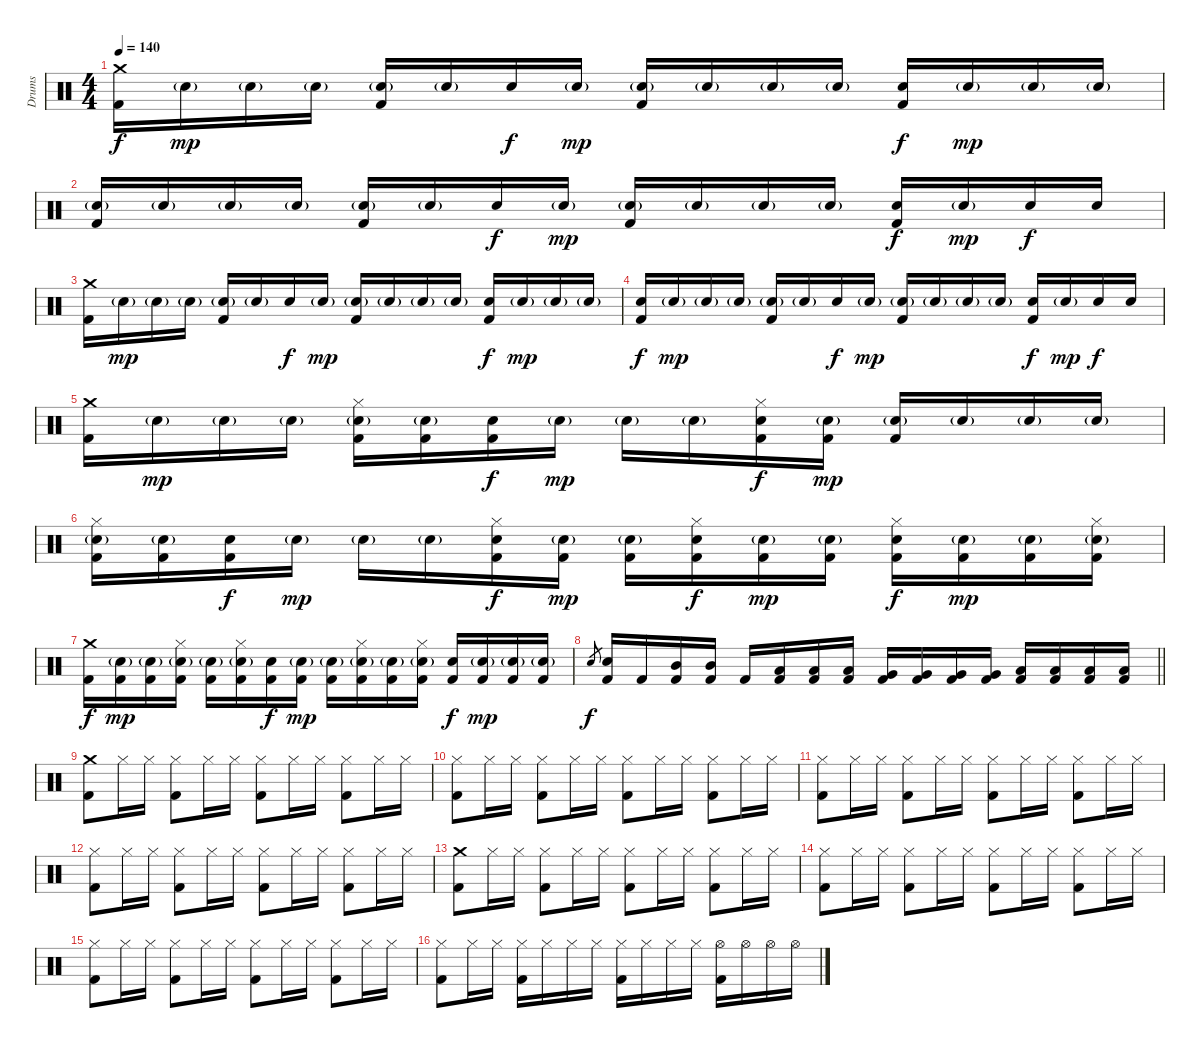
\track ("Drums" "Drums") {instrument percussion}
\staff {score}
\articulation defaults
\ts (4 4)
\tempo 140
\clef neutral
\ks c
("Crash medium (hit)" "Kick (hit) 2").16{dy f} "Electric Snare (hit)"{g}.16{dy mp} "Electric Snare (hit)"{g}.16 "Electric Snare (hit)"{g}.16 ("Electric Snare (hit)"{g} "Kick (hit) 2").16 "Electric Snare (hit)"{g}.16 "Electric Snare (hit)".16{dy f} "Electric Snare (hit)"{g}.16{dy mp} ("Electric Snare (hit)"{g} "Kick (hit) 2").16 "Electric Snare (hit)"{g}.16 "Electric Snare (hit)"{g}.16 "Electric Snare (hit)"{g}.16 ("Electric Snare (hit)" "Kick (hit) 2").16{dy f} "Electric Snare (hit)"{g}.16{dy mp} "Electric Snare (hit)"{g}.16 "Electric Snare (hit)"{g}.16 |
("Electric Snare (hit)"{g} "Kick (hit) 2").16 "Electric Snare (hit)"{g}.16 "Electric Snare (hit)"{g}.16 "Electric Snare (hit)"{g}.16 ("Electric Snare (hit)"{g} "Kick (hit) 2").16 "Electric Snare (hit)"{g}.16 "Electric Snare (hit)".16{dy f} "Electric Snare (hit)"{g}.16{dy mp} ("Electric Snare (hit)"{g} "Kick (hit) 2").16 "Electric Snare (hit)"{g}.16 "Electric Snare (hit)"{g}.16 "Electric Snare (hit)"{g}.16 ("Electric Snare (hit)" "Kick (hit) 2").16{dy f} "Electric Snare (hit)"{g}.16{dy mp} "Electric Snare (hit)".16{dy f} "Electric Snare (hit)".16 |
("Crash medium (hit)" "Kick (hit) 2").16 "Electric Snare (hit)"{g}.16{dy mp} "Electric Snare (hit)"{g}.16 "Electric Snare (hit)"{g}.16 ("Electric Snare (hit)"{g} "Kick (hit) 2").16 "Electric Snare (hit)"{g}.16 "Electric Snare (hit)".16{dy f} "Electric Snare (hit)"{g}.16{dy mp} ("Electric Snare (hit)"{g} "Kick (hit) 2").16 "Electric Snare (hit)"{g}.16 "Electric Snare (hit)"{g}.16 "Electric Snare (hit)"{g}.16 ("Electric Snare (hit)" "Kick (hit) 2").16{dy f} "Electric Snare (hit)"{g}.16{dy mp} "Electric Snare (hit)"{g}.16 "Electric Snare (hit)"{g}.16 |
("Electric Snare (hit)" "Kick (hit) 2").16{dy f} "Electric Snare (hit)"{g}.16{dy mp} "Electric Snare (hit)"{g}.16 "Electric Snare (hit)"{g}.16 ("Electric Snare (hit)"{g} "Kick (hit) 2").16 "Electric Snare (hit)"{g}.16 "Electric Snare (hit)".16{dy f} "Electric Snare (hit)"{g}.16{dy mp} ("Electric Snare (hit)"{g} "Kick (hit) 2").16 "Electric Snare (hit)"{g}.16 "Electric Snare (hit)"{g}.16 "Electric Snare (hit)"{g}.16 ("Electric Snare (hit)" "Kick (hit) 2").16{dy f} "Electric Snare (hit)"{g}.16{dy mp} "Electric Snare (hit)".16{dy f} "Electric Snare (hit)".16 |
("Crash medium (hit)" "Kick (hit) 2").16 "Electric Snare (hit)"{g}.16{dy mp} "Electric Snare (hit)"{g}.16 "Electric Snare (hit)"{g}.16 ("Hi-Hat (closed)" "Electric Snare (hit)"{g} "Kick (hit) 2").16 ("Electric Snare (hit)"{g} "Kick (hit) 2").16 ("Electric Snare (hit)" "Kick (hit) 2").16{dy f} "Electric Snare (hit)"{g}.16{dy mp} "Electric Snare (hit)"{g}.16 "Electric Snare (hit)"{g}.16 ("Hi-Hat (closed)" "Electric Snare (hit)" "Kick (hit) 2").16{dy f} ("Electric Snare (hit)"{g} "Kick (hit) 2").16{dy mp} ("Electric Snare (hit)"{g} "Kick (hit) 2").16 "Electric Snare (hit)"{g}.16 "Electric Snare (hit)"{g}.16 "Electric Snare (hit)"{g}.16 |
("Hi-Hat (closed)" "Electric Snare (hit)"{g} "Kick (hit) 2").16 ("Electric Snare (hit)"{g} "Kick (hit) 2").16 ("Electric Snare (hit)" "Kick (hit) 2").16{dy f} "Electric Snare (hit)"{g}.16{dy mp} "Electric Snare (hit)"{g}.16 "Electric Snare (hit)"{g}.16 ("Hi-Hat (closed)" "Electric Snare (hit)" "Kick (hit) 2").16{dy f} ("Electric Snare (hit)"{g} "Kick (hit) 2").16{dy mp} ("Electric Snare (hit)"{g} "Kick (hit) 2").16 ("Hi-Hat (closed)" "Electric Snare (hit)" "Kick (hit) 2").16{dy f} ("Electric Snare (hit)"{g} "Kick (hit) 2").16{dy mp} ("Electric Snare (hit)"{g} "Kick (hit) 2").16 ("Hi-Hat (closed)" "Electric Snare (hit)" "Kick (hit) 2").16{dy f} ("Electric Snare (hit)"{g} "Kick (hit) 2").16{dy mp} ("Electric Snare (hit)"{g} "Kick (hit) 2").16 ("Hi-Hat (closed)" "Electric Snare (hit)"{g} "Kick (hit) 2").16 |
("Crash medium (hit)" "Kick (hit) 2").16{dy f} ("Electric Snare (hit)"{g} "Kick (hit) 2").16{dy mp} ("Electric Snare (hit)"{g} "Kick (hit) 2").16 ("Hi-Hat (closed)" "Electric Snare (hit)"{g} "Kick (hit) 2").16 ("Electric Snare (hit)"{g} "Kick (hit) 2").16 ("Hi-Hat (closed)" "Electric Snare (hit)"{g} "Kick (hit) 2").16 ("Electric Snare (hit)" "Kick (hit) 2").16{dy f} ("Electric Snare (hit)"{g} "Kick (hit) 2").16{dy mp} ("Electric Snare (hit)"{g} "Kick (hit) 2").16 ("Hi-Hat (closed)" "Electric Snare (hit)"{g} "Kick (hit) 2").16 ("Electric Snare (hit)"{g} "Kick (hit) 2").16 ("Hi-Hat (closed)" "Electric Snare (hit)"{g} "Kick (hit) 2").16 ("Electric Snare (hit)" "Kick (hit) 2").16{dy f} ("Electric Snare (hit)"{g} "Kick (hit) 2").16{dy mp} ("Electric Snare (hit)"{g} "Kick (hit) 2").16 ("Electric Snare (hit)"{g} "Kick (hit) 2").16 |
\barLineRight lightlight "Electric Snare (hit)".8{gr dy f}
("Electric Snare (hit)" "Kick (hit) 2").16 "Kick (hit) 2".16 ("Mid Tom (hit)" "Kick (hit) 2").16 ("Mid Tom (hit)" "Kick (hit) 2").16 "Kick (hit) 2".16 ("Low Tom (hit)" "Kick (hit) 2").16 ("Low Tom (hit)" "Kick (hit) 2").16 ("Low Tom (hit)" "Kick (hit) 2").16 ("Very Low Tom (hit)" "Kick (hit) 2").16 ("Very Low Tom (hit)" "Kick (hit) 2").16 ("Very Low Tom (hit)" "Kick (hit) 2").16 ("Very Low Tom (hit)" "Kick (hit) 2").16 ("Low Floor Tom (hit)" "Kick (hit) 2").16 ("Low Floor Tom (hit)" "Kick (hit) 2").16 ("Low Floor Tom (hit)" "Kick (hit) 2").16 ("Low Floor Tom (hit)" "Kick (hit) 2").16 |
("Crash medium (hit)" "Kick (hit) 2").8 "Hi-Hat (closed)".16 "Hi-Hat (closed)".16 ("Hi-Hat (closed)" "Kick (hit) 2").8 "Hi-Hat (closed)".16 "Hi-Hat (closed)".16 ("Hi-Hat (closed)" "Kick (hit) 2").8 "Hi-Hat (closed)".16 "Hi-Hat (closed)".16 ("Hi-Hat (closed)" "Kick (hit) 2").8 "Hi-Hat (closed)".16 "Hi-Hat (closed)".16 |
("Hi-Hat (closed)" "Kick (hit) 2").8 "Hi-Hat (closed)".16 "Hi-Hat (closed)".16 ("Hi-Hat (closed)" "Kick (hit) 2").8 "Hi-Hat (closed)".16 "Hi-Hat (closed)".16 ("Hi-Hat (closed)" "Kick (hit) 2").8 "Hi-Hat (closed)".16 "Hi-Hat (closed)".16 ("Hi-Hat (closed)" "Kick (hit) 2").8 "Hi-Hat (closed)".16 "Hi-Hat (closed)".16 |
("Hi-Hat (closed)" "Kick (hit) 2").8 "Hi-Hat (closed)".16 "Hi-Hat (closed)".16 ("Hi-Hat (closed)" "Kick (hit) 2").8 "Hi-Hat (closed)".16 "Hi-Hat (closed)".16 ("Hi-Hat (closed)" "Kick (hit) 2").8 "Hi-Hat (closed)".16 "Hi-Hat (closed)".16 ("Hi-Hat (closed)" "Kick (hit) 2").8 "Hi-Hat (closed)".16 "Hi-Hat (closed)".16 |
("Hi-Hat (closed)" "Kick (hit) 2").8 "Hi-Hat (closed)".16 "Hi-Hat (closed)".16 ("Hi-Hat (closed)" "Kick (hit) 2").8 "Hi-Hat (closed)".16 "Hi-Hat (closed)".16 ("Hi-Hat (closed)" "Kick (hit) 2").8 "Hi-Hat (closed)".16 "Hi-Hat (closed)".16 ("Hi-Hat (closed)" "Kick (hit) 2").8 "Hi-Hat (closed)".16 "Hi-Hat (closed)".16 |
("Crash medium (hit)" "Kick (hit) 2").8 "Hi-Hat (closed)".16 "Hi-Hat (closed)".16 ("Hi-Hat (closed)" "Kick (hit) 2").8 "Hi-Hat (closed)".16 "Hi-Hat (closed)".16 ("Hi-Hat (closed)" "Kick (hit) 2").8 "Hi-Hat (closed)".16 "Hi-Hat (closed)".16 ("Hi-Hat (closed)" "Kick (hit) 2").8 "Hi-Hat (closed)".16 "Hi-Hat (closed)".16 |
("Hi-Hat (closed)" "Kick (hit) 2").8 "Hi-Hat (closed)".16 "Hi-Hat (closed)".16 ("Hi-Hat (closed)" "Kick (hit) 2").8 "Hi-Hat (closed)".16 "Hi-Hat (closed)".16 ("Hi-Hat (closed)" "Kick (hit) 2").8 "Hi-Hat (closed)".16 "Hi-Hat (closed)".16 ("Hi-Hat (closed)" "Kick (hit) 2").8 "Hi-Hat (closed)".16 "Hi-Hat (closed)".16 |
("Hi-Hat (closed)" "Kick (hit) 2").8 "Hi-Hat (closed)".16 "Hi-Hat (closed)".16 ("Hi-Hat (closed)" "Kick (hit) 2").8 "Hi-Hat (closed)".16 "Hi-Hat (closed)".16 ("Hi-Hat (closed)" "Kick (hit) 2").8 "Hi-Hat (closed)".16 "Hi-Hat (closed)".16 ("Hi-Hat (closed)" "Kick (hit) 2").8 "Hi-Hat (closed)".16 "Hi-Hat (closed)".16 |
("Hi-Hat (closed)" "Kick (hit) 2").8 "Hi-Hat (closed)".16 "Hi-Hat (closed)".16 ("Hi-Hat (closed)" "Kick (hit) 2").16 "Hi-Hat (closed)".16 "Hi-Hat (closed)".16 "Hi-Hat (closed)".16 ("Hi-Hat (closed)" "Kick (hit) 2").16 "Hi-Hat (closed)".16 "Hi-Hat (closed)".16 "Hi-Hat (closed)".16 ("Hi-Hat (open)" "Kick (hit) 2").16 "Hi-Hat (open)".16 "Hi-Hat (open)".16 "Hi-Hat (open)".16
